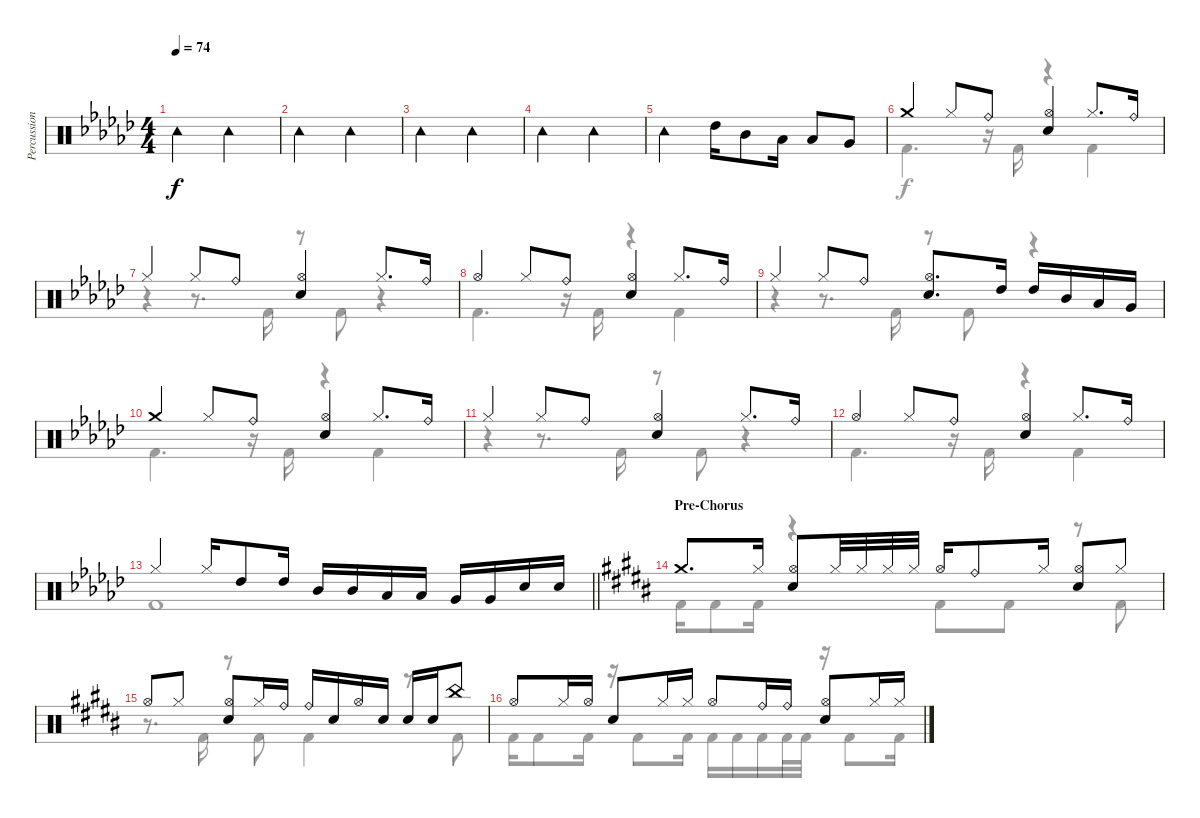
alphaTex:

\track ("Percussion" "Percussion") {instrument percussion}
\staff {score}
\articulation defaults
\voice
\ts (4 4)
\tempo 74
\clef neutral
\ks ebminor "Tambourine (hit)".2{dy f} "Tambourine (hit)".2
|
"Tambourine (hit)".2 "Tambourine (hit)".2 |
"Tambourine (hit)".2 "Tambourine (hit)".2 |
"Tambourine (hit)".2 "Tambourine (hit)".2 |
"Tambourine (hit)".2 "High Tom (hit)".16 "Mid Tom (hit)".8 "Low Tom (hit)".16 "Low Tom (hit)".8 "Very Low Tom (hit)".8 |
"Crash medium (hit)".4 "Hi-Hat (closed)".8 "Ride (bell)".8 ("Hi-Hat (open)" "Snare (hit) 2").4 "Hi-Hat (closed)".8{d} "Ride (bell)".16 |
"Hi-Hat (closed)".4 "Hi-Hat (closed)".8 "Ride (bell)".8 ("Hi-Hat (open)" "Snare (hit) 2").4 "Hi-Hat (closed)".8{d} "Ride (bell)".16 |
"Hi-Hat (open)".4 "Hi-Hat (closed)".8 "Ride (bell)".8 ("Hi-Hat (open)" "Snare (hit) 2").4 "Hi-Hat (closed)".8{d} "Ride (bell)".16 |
"Hi-Hat (closed)".4 "Hi-Hat (closed)".8 "Ride (bell)".8 ("Hi-Hat (open)" "Snare (hit) 2").8{d} "High Tom (hit)".16 "High Tom (hit)".16 "Mid Tom (hit)".16 "Low Tom (hit)".16 "Very Low Tom (hit)".16 |
"Crash medium (hit)".4 "Hi-Hat (closed)".8 "Ride (bell)".8 ("Hi-Hat (open)" "Snare (hit) 2").4 "Hi-Hat (closed)".8{d} "Ride (bell)".16 |
"Hi-Hat (closed)".4 "Hi-Hat (closed)".8 "Ride (bell)".8 ("Hi-Hat (open)" "Snare (hit) 2").4 "Hi-Hat (closed)".8{d} "Ride (bell)".16 |
"Hi-Hat (open)".4 "Hi-Hat (closed)".8 "Ride (bell)".8 ("Hi-Hat (open)" "Snare (hit) 2").4 "Hi-Hat (closed)".8{d} "Ride (bell)".16 |
\barLineRight lightlight "Hi-Hat (closed)".4 "Hi-Hat (closed)".16 "High Tom (hit)".8 "High Tom (hit)".16 "Mid Tom (hit)".16 "Mid Tom (hit)".16 "Low Tom (hit)".16 "Low Tom (hit)".16 "Very Low Tom (hit)".16 "Very Low Tom (hit)".16 "Snare (hit) 2".16 "Snare (hit) 2".16
|
\section ("" "Pre-Chorus")
\ks g#minor "Crash medium (hit)".8{d} "Hi-Hat (closed)".16
("Hi-Hat (open)" "Snare (hit) 2").8 "Hi-Hat (closed)".32 "Hi-Hat (closed)".32 "Hi-Hat (closed)".32 "Hi-Hat (closed)".32 "Hi-Hat (open)".16 "Ride (bell)".8 "Hi-Hat (closed)".16 ("Hi-Hat (open)" "Snare (hit) 2").8 "Hi-Hat (closed)".8 |
"Hi-Hat (open)".8 "Hi-Hat (closed)".8 ("Hi-Hat (open)" "Snare (hit) 2").8 "Hi-Hat (closed)".16 "Ride (bell)".16 "Ride (bell)".16 "Snare (hit) 2".16 "Hi-Hat (open)".16 "Snare (hit) 2".16 "Snare (hit) 2".16 "Snare (hit) 2".16 "China (hit)".8 |
"Hi-Hat (open)".8 "Hi-Hat (closed)".16 "Hi-Hat (open)".16 "Snare (hit) 2".8 "Hi-Hat (closed)".16 "Hi-Hat (closed)".16 "Hi-Hat (open)".8 "Ride (bell)".16 "Ride (bell)".16 ("Hi-Hat (open)" "Snare (hit) 2").8 "Hi-Hat (closed)".16 "Hi-Hat (closed)".16
\voice
\clef neutral
\ottava regular
\simile none
\ks ebminor
|
|
|
|
|
"Kick (hit) 2".4{d} r.16 "Kick (hit) 2".16 r.4 "Kick (hit) 2".4 |
r.4 r.8{d} "Kick (hit) 2".16 r.8 "Kick (hit) 2".8 r.4 |
"Kick (hit) 2".4{d} r.16 "Kick (hit) 2".16 r.4 "Kick (hit) 2".4 |
r.4 r.8{d} "Kick (hit) 2".16 r.8 "Kick (hit) 2".8 r.4 |
"Kick (hit) 2".4{d} r.16 "Kick (hit) 2".16 r.4 "Kick (hit) 2".4 |
r.4 r.8{d} "Kick (hit) 2".16 r.8 "Kick (hit) 2".8 r.4 |
"Kick (hit) 2".4{d} r.16 "Kick (hit) 2".16 r.4 "Kick (hit) 2".4 |
\barLineRight lightlight "Kick (hit) 2".1
|
\ks g#minor "Kick (hit) 2".16 "Kick (hit) 2".8 "Kick (hit) 2".16
r.4 "Kick (hit) 2".8 "Kick (hit) 2".8 r.8 "Kick (hit) 2".8 |
r.8{d} "Kick (hit) 2".16 r.8 "Kick (hit) 2".8 "Kick (hit) 2".4 r.8 "Kick (hit) 2".8 |
"Kick (hit) 2".16 "Kick (hit) 2".8 "Kick (hit) 2".16 r.16 "Kick (hit) 2".8 "Kick (hit) 2".16 "Kick (hit) 2".16 "Kick (hit) 2".16 "Kick (hit) 2".16 "Kick (hit) 2".32 "Kick (hit) 2".32 r.16 "Kick (hit) 2".8 "Kick (hit) 2".16
